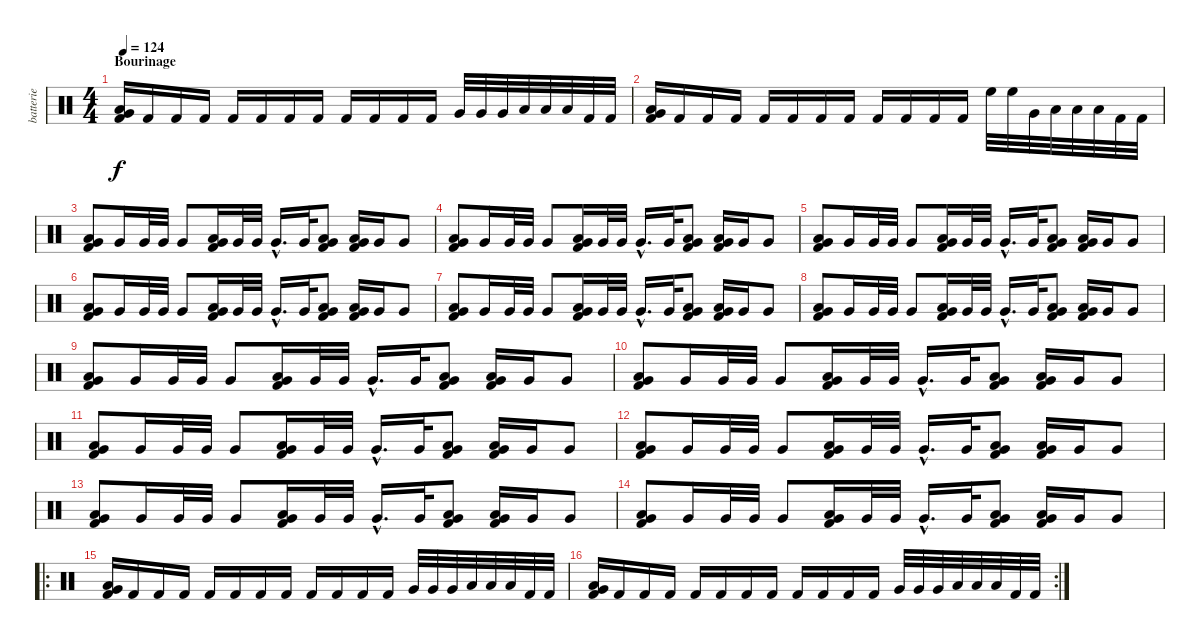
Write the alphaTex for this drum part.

\track ("batterie" "batterie") {instrument percussion}
\staff {score}
\articulation defaults
\ts (4 4)
\section ("" "Bourinage")
\tempo 124
\clef neutral
\ks c
("Low Floor Tom (hit)" "Very Low Tom (hit)" "Kick (hit) 2").16{dy f} "Kick (hit) 2".16 "Kick (hit) 2".16 "Kick (hit) 2".16 "Kick (hit) 2".16 "Kick (hit) 2".16 "Kick (hit) 2".16 "Kick (hit) 2".16 "Kick (hit) 2".16 "Kick (hit) 2".16 "Kick (hit) 2".16 "Kick (hit) 2".16 "Very Low Tom (hit)".32 "Very Low Tom (hit)".32 "Very Low Tom (hit)".32 "Low Floor Tom (hit)".32 "Low Floor Tom (hit)".32 "Low Floor Tom (hit)".32 "Kick (hit) 2".32 "Kick (hit) 2".32 |
("Low Floor Tom (hit)" "Very Low Tom (hit)" "Kick (hit) 2").16 "Kick (hit) 2".16 "Kick (hit) 2".16 "Kick (hit) 2".16 "Kick (hit) 2".16 "Kick (hit) 2".16 "Kick (hit) 2".16 "Kick (hit) 2".16 "Kick (hit) 2".16 "Kick (hit) 2".16 "Kick (hit) 2".16 "Kick (hit) 2".16 "High Floor Tom (hit)".32 "High Floor Tom (hit)".32 "Very Low Tom (hit)".32 "Low Floor Tom (hit)".32 "Low Floor Tom (hit)".32 "Low Floor Tom (hit)".32 "Kick (hit) 2".32 "Kick (hit) 2".32 |
("Low Floor Tom (hit)" "Very Low Tom (hit)" "Kick (hit) 2").8 "Very Low Tom (hit)".16 "Very Low Tom (hit)".32 "Very Low Tom (hit)".32 "Very Low Tom (hit)".8 ("Low Floor Tom (hit)" "Very Low Tom (hit)" "Kick (hit) 2").16 "Very Low Tom (hit)".32 "Very Low Tom (hit)".32 "Very Low Tom (hit)"{hac}.16{d} "Very Low Tom (hit)".32 ("Low Floor Tom (hit)" "Very Low Tom (hit)" "Kick (hit) 2").8 ("Low Floor Tom (hit)" "Very Low Tom (hit)" "Kick (hit) 2").16 "Very Low Tom (hit)".16 "Very Low Tom (hit)".8 |
("Low Floor Tom (hit)" "Very Low Tom (hit)" "Kick (hit) 2").8 "Very Low Tom (hit)".16 "Very Low Tom (hit)".32 "Very Low Tom (hit)".32 "Very Low Tom (hit)".8 ("Low Floor Tom (hit)" "Very Low Tom (hit)" "Kick (hit) 2").16 "Very Low Tom (hit)".32 "Very Low Tom (hit)".32 "Very Low Tom (hit)"{hac}.16{d} "Very Low Tom (hit)".32 ("Low Floor Tom (hit)" "Very Low Tom (hit)" "Kick (hit) 2").8 ("Low Floor Tom (hit)" "Very Low Tom (hit)" "Kick (hit) 2").16 "Very Low Tom (hit)".16 "Very Low Tom (hit)".8 |
("Low Floor Tom (hit)" "Very Low Tom (hit)" "Kick (hit) 2").8 "Very Low Tom (hit)".16 "Very Low Tom (hit)".32 "Very Low Tom (hit)".32 "Very Low Tom (hit)".8 ("Low Floor Tom (hit)" "Very Low Tom (hit)" "Kick (hit) 2").16 "Very Low Tom (hit)".32 "Very Low Tom (hit)".32 "Very Low Tom (hit)"{hac}.16{d} "Very Low Tom (hit)".32 ("Low Floor Tom (hit)" "Very Low Tom (hit)" "Kick (hit) 2").8 ("Low Floor Tom (hit)" "Very Low Tom (hit)" "Kick (hit) 2").16 "Very Low Tom (hit)".16 "Very Low Tom (hit)".8 |
("Low Floor Tom (hit)" "Very Low Tom (hit)" "Kick (hit) 2").8 "Very Low Tom (hit)".16 "Very Low Tom (hit)".32 "Very Low Tom (hit)".32 "Very Low Tom (hit)".8 ("Low Floor Tom (hit)" "Very Low Tom (hit)" "Kick (hit) 2").16 "Very Low Tom (hit)".32 "Very Low Tom (hit)".32 "Very Low Tom (hit)"{hac}.16{d} "Very Low Tom (hit)".32 ("Low Floor Tom (hit)" "Very Low Tom (hit)" "Kick (hit) 2").8 ("Low Floor Tom (hit)" "Very Low Tom (hit)" "Kick (hit) 2").16 "Very Low Tom (hit)".16 "Very Low Tom (hit)".8 |
("Low Floor Tom (hit)" "Very Low Tom (hit)" "Kick (hit) 2").8 "Very Low Tom (hit)".16 "Very Low Tom (hit)".32 "Very Low Tom (hit)".32 "Very Low Tom (hit)".8 ("Low Floor Tom (hit)" "Very Low Tom (hit)" "Kick (hit) 2").16 "Very Low Tom (hit)".32 "Very Low Tom (hit)".32 "Very Low Tom (hit)"{hac}.16{d} "Very Low Tom (hit)".32 ("Low Floor Tom (hit)" "Very Low Tom (hit)" "Kick (hit) 2").8 ("Low Floor Tom (hit)" "Very Low Tom (hit)" "Kick (hit) 2").16 "Very Low Tom (hit)".16 "Very Low Tom (hit)".8 |
("Low Floor Tom (hit)" "Very Low Tom (hit)" "Kick (hit) 2").8 "Very Low Tom (hit)".16 "Very Low Tom (hit)".32 "Very Low Tom (hit)".32 "Very Low Tom (hit)".8 ("Low Floor Tom (hit)" "Very Low Tom (hit)" "Kick (hit) 2").16 "Very Low Tom (hit)".32 "Very Low Tom (hit)".32 "Very Low Tom (hit)"{hac}.16{d} "Very Low Tom (hit)".32 ("Low Floor Tom (hit)" "Very Low Tom (hit)" "Kick (hit) 2").8 ("Low Floor Tom (hit)" "Very Low Tom (hit)" "Kick (hit) 2").16 "Very Low Tom (hit)".16 "Very Low Tom (hit)".8 |
("Low Floor Tom (hit)" "Very Low Tom (hit)" "Kick (hit) 2").8 "Very Low Tom (hit)".16 "Very Low Tom (hit)".32 "Very Low Tom (hit)".32 "Very Low Tom (hit)".8 ("Low Floor Tom (hit)" "Very Low Tom (hit)" "Kick (hit) 2").16 "Very Low Tom (hit)".32 "Very Low Tom (hit)".32 "Very Low Tom (hit)"{hac}.16{d} "Very Low Tom (hit)".32 ("Low Floor Tom (hit)" "Very Low Tom (hit)" "Kick (hit) 2").8 ("Low Floor Tom (hit)" "Very Low Tom (hit)" "Kick (hit) 2").16 "Very Low Tom (hit)".16 "Very Low Tom (hit)".8 |
("Low Floor Tom (hit)" "Very Low Tom (hit)" "Kick (hit) 2").8 "Very Low Tom (hit)".16 "Very Low Tom (hit)".32 "Very Low Tom (hit)".32 "Very Low Tom (hit)".8 ("Low Floor Tom (hit)" "Very Low Tom (hit)" "Kick (hit) 2").16 "Very Low Tom (hit)".32 "Very Low Tom (hit)".32 "Very Low Tom (hit)"{hac}.16{d} "Very Low Tom (hit)".32 ("Low Floor Tom (hit)" "Very Low Tom (hit)" "Kick (hit) 2").8 ("Low Floor Tom (hit)" "Very Low Tom (hit)" "Kick (hit) 2").16 "Very Low Tom (hit)".16 "Very Low Tom (hit)".8 |
("Low Floor Tom (hit)" "Very Low Tom (hit)" "Kick (hit) 2").8 "Very Low Tom (hit)".16 "Very Low Tom (hit)".32 "Very Low Tom (hit)".32 "Very Low Tom (hit)".8 ("Low Floor Tom (hit)" "Very Low Tom (hit)" "Kick (hit) 2").16 "Very Low Tom (hit)".32 "Very Low Tom (hit)".32 "Very Low Tom (hit)"{hac}.16{d} "Very Low Tom (hit)".32 ("Low Floor Tom (hit)" "Very Low Tom (hit)" "Kick (hit) 2").8 ("Low Floor Tom (hit)" "Very Low Tom (hit)" "Kick (hit) 2").16 "Very Low Tom (hit)".16 "Very Low Tom (hit)".8 |
("Low Floor Tom (hit)" "Very Low Tom (hit)" "Kick (hit) 2").8 "Very Low Tom (hit)".16 "Very Low Tom (hit)".32 "Very Low Tom (hit)".32 "Very Low Tom (hit)".8 ("Low Floor Tom (hit)" "Very Low Tom (hit)" "Kick (hit) 2").16 "Very Low Tom (hit)".32 "Very Low Tom (hit)".32 "Very Low Tom (hit)"{hac}.16{d} "Very Low Tom (hit)".32 ("Low Floor Tom (hit)" "Very Low Tom (hit)" "Kick (hit) 2").8 ("Low Floor Tom (hit)" "Very Low Tom (hit)" "Kick (hit) 2").16 "Very Low Tom (hit)".16 "Very Low Tom (hit)".8 |
("Low Floor Tom (hit)" "Very Low Tom (hit)" "Kick (hit) 2").8 "Very Low Tom (hit)".16 "Very Low Tom (hit)".32 "Very Low Tom (hit)".32 "Very Low Tom (hit)".8 ("Low Floor Tom (hit)" "Very Low Tom (hit)" "Kick (hit) 2").16 "Very Low Tom (hit)".32 "Very Low Tom (hit)".32 "Very Low Tom (hit)"{hac}.16{d} "Very Low Tom (hit)".32 ("Low Floor Tom (hit)" "Very Low Tom (hit)" "Kick (hit) 2").8 ("Low Floor Tom (hit)" "Very Low Tom (hit)" "Kick (hit) 2").16 "Very Low Tom (hit)".16 "Very Low Tom (hit)".8 |
("Low Floor Tom (hit)" "Very Low Tom (hit)" "Kick (hit) 2").8 "Very Low Tom (hit)".16 "Very Low Tom (hit)".32 "Very Low Tom (hit)".32 "Very Low Tom (hit)".8 ("Low Floor Tom (hit)" "Very Low Tom (hit)" "Kick (hit) 2").16 "Very Low Tom (hit)".32 "Very Low Tom (hit)".32 "Very Low Tom (hit)"{hac}.16{d} "Very Low Tom (hit)".32 ("Low Floor Tom (hit)" "Very Low Tom (hit)" "Kick (hit) 2").8 ("Low Floor Tom (hit)" "Very Low Tom (hit)" "Kick (hit) 2").16 "Very Low Tom (hit)".16 "Very Low Tom (hit)".8 |
\ro
("Low Floor Tom (hit)" "Very Low Tom (hit)" "Kick (hit) 2").16 "Kick (hit) 2".16 "Kick (hit) 2".16 "Kick (hit) 2".16 "Kick (hit) 2".16 "Kick (hit) 2".16 "Kick (hit) 2".16 "Kick (hit) 2".16 "Kick (hit) 2".16 "Kick (hit) 2".16 "Kick (hit) 2".16 "Kick (hit) 2".16 "Very Low Tom (hit)".32 "Very Low Tom (hit)".32 "Very Low Tom (hit)".32 "Low Floor Tom (hit)".32 "Low Floor Tom (hit)".32 "Low Floor Tom (hit)".32 "Kick (hit) 2".32 "Kick (hit) 2".32 |
\rc 2
("Low Floor Tom (hit)" "Very Low Tom (hit)" "Kick (hit) 2").16 "Kick (hit) 2".16 "Kick (hit) 2".16 "Kick (hit) 2".16 "Kick (hit) 2".16 "Kick (hit) 2".16 "Kick (hit) 2".16 "Kick (hit) 2".16 "Kick (hit) 2".16 "Kick (hit) 2".16 "Kick (hit) 2".16 "Kick (hit) 2".16 "Very Low Tom (hit)".32 "Very Low Tom (hit)".32 "Very Low Tom (hit)".32 "Low Floor Tom (hit)".32 "Low Floor Tom (hit)".32 "Low Floor Tom (hit)".32 "Kick (hit) 2".32 "Kick (hit) 2".32
